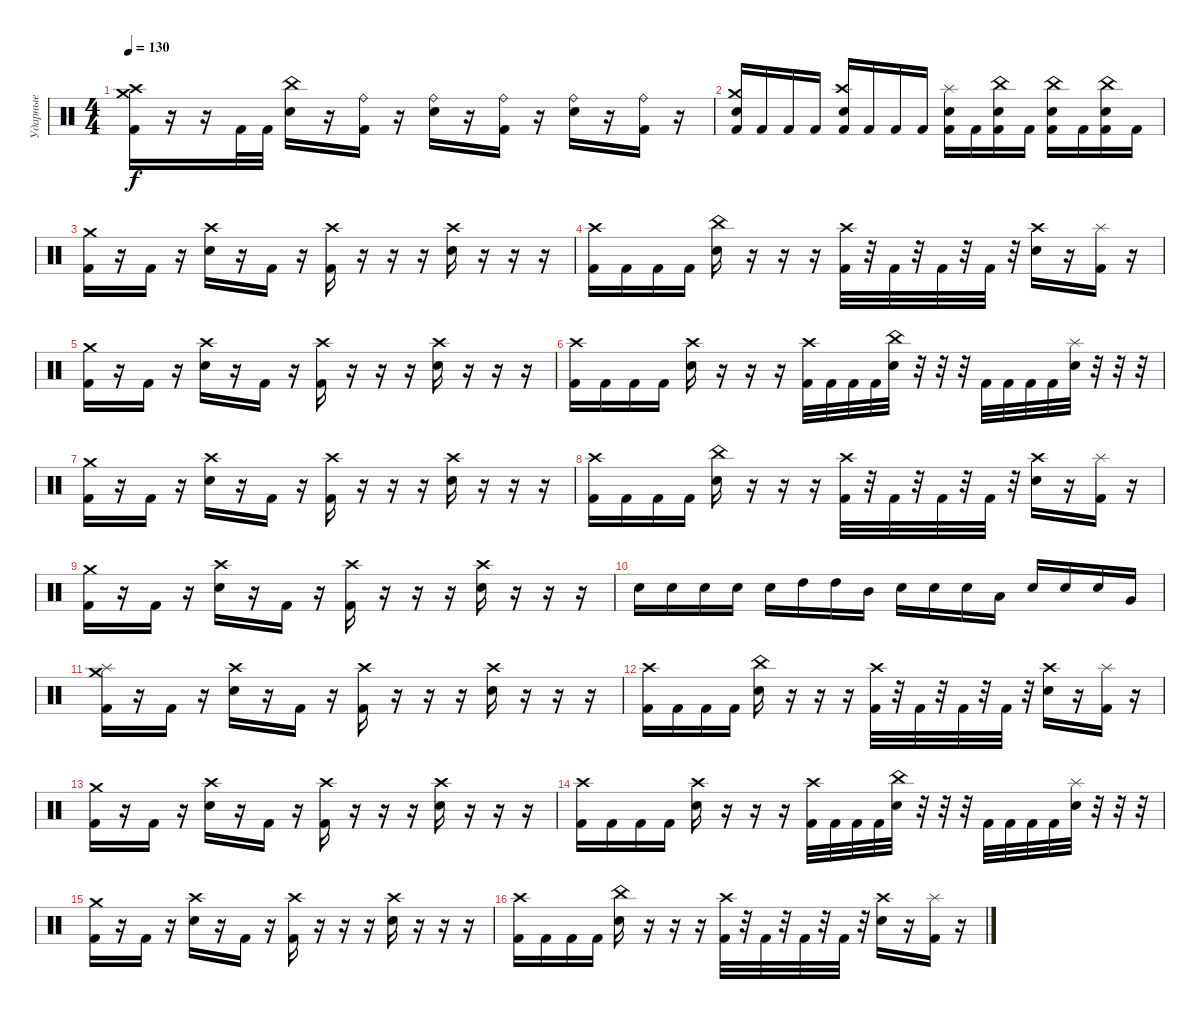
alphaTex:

\track ("Ударные" "Ударные") {instrument percussion}
\staff {score}
\articulation defaults
\ts (4 4)
\tempo 130
\clef neutral
\ks c
("Kick (hit) 2" "Crash high (hit)" "Crash medium (hit)").16{dy f} r.16 r.16 "Kick (hit) 2".32 "Kick (hit) 2".32 ("Electric Snare (hit)" "China (hit)").16 r.16 ("Kick (hit) 2" "Ride (bell)").16 r.16 ("Electric Snare (hit)" "Ride (bell)").16 r.16 ("Kick (hit) 2" "Ride (bell)").16 r.16 ("Electric Snare (hit)" "Ride (bell)").16 r.16 ("Kick (hit) 2" "Ride (bell)").16 r.16 |
("Kick (hit) 2" "Electric Snare (hit)" "Crash medium (hit)").16 "Kick (hit) 2".16 "Kick (hit) 2".16 "Kick (hit) 2".16 ("Kick (hit) 2" "Electric Snare (hit)" "Crash high (hit)").16 "Kick (hit) 2".16 "Kick (hit) 2".16 "Kick (hit) 2".16 ("Kick (hit) 2" "Electric Snare (hit)" "Splash (hit)").16 "Kick (hit) 2".16 ("Kick (hit) 2" "Electric Snare (hit)" "China (hit)").16 "Kick (hit) 2".16 ("Kick (hit) 2" "Electric Snare (hit)" "China (hit)").16 "Kick (hit) 2".16 ("Kick (hit) 2" "Electric Snare (hit)" "China (hit)").16 "Kick (hit) 2".16 |
("Kick (hit) 2" "Crash medium (hit)").16 r.16 "Kick (hit) 2".16 r.16 ("Electric Snare (hit)" "Crash high (hit)").16 r.16 "Kick (hit) 2".16 r.16 ("Kick (hit) 2" "Crash high (hit)").16 r.16 r.16 r.16 ("Electric Snare (hit)" "Crash high (hit)").16 r.16 r.16 r.16 |
("Kick (hit) 2" "Crash high (hit)").16 "Kick (hit) 2".16 "Kick (hit) 2".16 "Kick (hit) 2".16 ("Electric Snare (hit)" "China (hit)").16 r.16 r.16 r.16 ("Kick (hit) 2" "Crash high (hit)").32 r.32 "Kick (hit) 2".32 r.32 "Kick (hit) 2".32 r.32 "Kick (hit) 2".32 r.32 ("Electric Snare (hit)" "Crash high (hit)").16 r.16 ("Kick (hit) 2" "Splash (hit)").16 r.16 |
("Kick (hit) 2" "Crash medium (hit)").16 r.16 "Kick (hit) 2".16 r.16 ("Electric Snare (hit)" "Crash high (hit)").16 r.16 "Kick (hit) 2".16 r.16 ("Kick (hit) 2" "Crash high (hit)").16 r.16 r.16 r.16 ("Electric Snare (hit)" "Crash high (hit)").16 r.16 r.16 r.16 |
("Kick (hit) 2" "Crash high (hit)").16 "Kick (hit) 2".16 "Kick (hit) 2".16 "Kick (hit) 2".16 ("Electric Snare (hit)" "Crash high (hit)").16 r.16 r.16 r.16 ("Kick (hit) 2" "Crash high (hit)").32 "Kick (hit) 2".32 "Kick (hit) 2".32 "Kick (hit) 2".32 ("Electric Snare (hit)" "China (hit)").32 r.32 r.32 r.32 "Kick (hit) 2".32 "Kick (hit) 2".32 "Kick (hit) 2".32 "Kick (hit) 2".32 ("Electric Snare (hit)" "Splash (hit)").32 r.32 r.32 r.32 |
("Kick (hit) 2" "Crash medium (hit)").16 r.16 "Kick (hit) 2".16 r.16 ("Electric Snare (hit)" "Crash high (hit)").16 r.16 "Kick (hit) 2".16 r.16 ("Kick (hit) 2" "Crash high (hit)").16 r.16 r.16 r.16 ("Electric Snare (hit)" "Crash high (hit)").16 r.16 r.16 r.16 |
("Kick (hit) 2" "Crash high (hit)").16 "Kick (hit) 2".16 "Kick (hit) 2".16 "Kick (hit) 2".16 ("Electric Snare (hit)" "China (hit)").16 r.16 r.16 r.16 ("Kick (hit) 2" "Crash high (hit)").32 r.32 "Kick (hit) 2".32 r.32 "Kick (hit) 2".32 r.32 "Kick (hit) 2".32 r.32 ("Electric Snare (hit)" "Crash high (hit)").16 r.16 ("Kick (hit) 2" "Splash (hit)").16 r.16 |
("Kick (hit) 2" "Crash medium (hit)").16 r.16 "Kick (hit) 2".16 r.16 ("Electric Snare (hit)" "Crash high (hit)").16 r.16 "Kick (hit) 2".16 r.16 ("Kick (hit) 2" "Crash high (hit)").16 r.16 r.16 r.16 ("Electric Snare (hit)" "Crash high (hit)").16 r.16 r.16 r.16 |
"Electric Snare (hit)".16 "Electric Snare (hit)".16 "Electric Snare (hit)".16 "Electric Snare (hit)".16 "Electric Snare (hit)".16 "High Tom (hit)".16 "High Tom (hit)".16 "Mid Tom (hit)".16 "Electric Snare (hit)".16 "Electric Snare (hit)".16 "Electric Snare (hit)".16 "Low Tom (hit)".16 "Electric Snare (hit)".16 "Electric Snare (hit)".16 "Electric Snare (hit)".16 "Very Low Tom (hit)".16 |
("Kick (hit) 2" "Splash (hit)" "Crash medium (hit)").16 r.16 "Kick (hit) 2".16 r.16 ("Electric Snare (hit)" "Crash high (hit)").16 r.16 "Kick (hit) 2".16 r.16 ("Kick (hit) 2" "Crash high (hit)").16 r.16 r.16 r.16 ("Electric Snare (hit)" "Crash high (hit)").16 r.16 r.16 r.16 |
("Kick (hit) 2" "Crash high (hit)").16 "Kick (hit) 2".16 "Kick (hit) 2".16 "Kick (hit) 2".16 ("Electric Snare (hit)" "China (hit)").16 r.16 r.16 r.16 ("Kick (hit) 2" "Crash high (hit)").32 r.32 "Kick (hit) 2".32 r.32 "Kick (hit) 2".32 r.32 "Kick (hit) 2".32 r.32 ("Electric Snare (hit)" "Crash high (hit)").16 r.16 ("Kick (hit) 2" "Splash (hit)").16 r.16 |
("Kick (hit) 2" "Crash medium (hit)").16 r.16 "Kick (hit) 2".16 r.16 ("Electric Snare (hit)" "Crash high (hit)").16 r.16 "Kick (hit) 2".16 r.16 ("Kick (hit) 2" "Crash high (hit)").16 r.16 r.16 r.16 ("Electric Snare (hit)" "Crash high (hit)").16 r.16 r.16 r.16 |
("Kick (hit) 2" "Crash high (hit)").16 "Kick (hit) 2".16 "Kick (hit) 2".16 "Kick (hit) 2".16 ("Electric Snare (hit)" "Crash high (hit)").16 r.16 r.16 r.16 ("Kick (hit) 2" "Crash high (hit)").32 "Kick (hit) 2".32 "Kick (hit) 2".32 "Kick (hit) 2".32 ("Electric Snare (hit)" "China (hit)").32 r.32 r.32 r.32 "Kick (hit) 2".32 "Kick (hit) 2".32 "Kick (hit) 2".32 "Kick (hit) 2".32 ("Electric Snare (hit)" "Splash (hit)").32 r.32 r.32 r.32 |
("Kick (hit) 2" "Crash medium (hit)").16 r.16 "Kick (hit) 2".16 r.16 ("Electric Snare (hit)" "Crash high (hit)").16 r.16 "Kick (hit) 2".16 r.16 ("Kick (hit) 2" "Crash high (hit)").16 r.16 r.16 r.16 ("Electric Snare (hit)" "Crash high (hit)").16 r.16 r.16 r.16 |
("Kick (hit) 2" "Crash high (hit)").16 "Kick (hit) 2".16 "Kick (hit) 2".16 "Kick (hit) 2".16 ("Electric Snare (hit)" "China (hit)").16 r.16 r.16 r.16 ("Kick (hit) 2" "Crash high (hit)").32 r.32 "Kick (hit) 2".32 r.32 "Kick (hit) 2".32 r.32 "Kick (hit) 2".32 r.32 ("Electric Snare (hit)" "Crash high (hit)").16 r.16 ("Kick (hit) 2" "Splash (hit)").16 r.16
